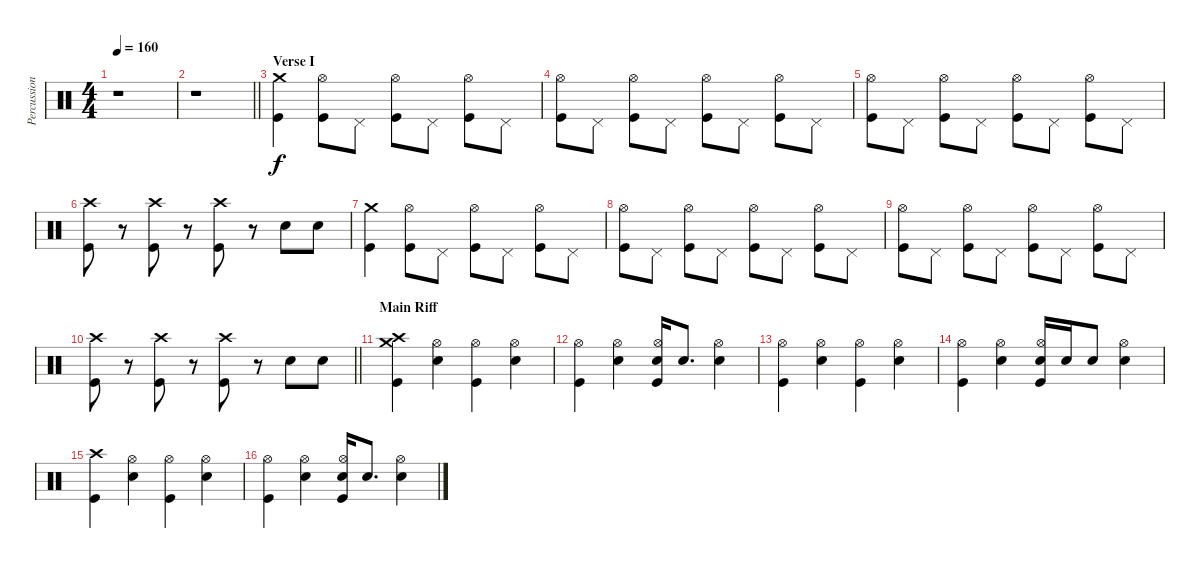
\track ("Percussion" "Percussion") {instrument percussion}
\staff {score}
\articulation defaults
\ts (4 4)
\tempo 160
\clef neutral
\ks c
r.1{dy f} |
\barLineRight lightlight
r.1 |
\section ("" "Verse I")
("Crash medium (hit)" "Kick (hit)").4 ("Hi-Hat (open)" "Kick (hit)").8 "Pedal Hi-Hat (hit)".8 ("Hi-Hat (open)" "Kick (hit)").8 "Pedal Hi-Hat (hit)".8 ("Hi-Hat (open)" "Kick (hit)").8 "Pedal Hi-Hat (hit)".8 |
("Hi-Hat (open)" "Kick (hit)").8 "Pedal Hi-Hat (hit)".8 ("Hi-Hat (open)" "Kick (hit)").8 "Pedal Hi-Hat (hit)".8 ("Hi-Hat (open)" "Kick (hit)").8 "Pedal Hi-Hat (hit)".8 ("Hi-Hat (open)" "Kick (hit)").8 "Pedal Hi-Hat (hit)".8 |
("Hi-Hat (open)" "Kick (hit)").8 "Pedal Hi-Hat (hit)".8 ("Hi-Hat (open)" "Kick (hit)").8 "Pedal Hi-Hat (hit)".8 ("Hi-Hat (open)" "Kick (hit)").8 "Pedal Hi-Hat (hit)".8 ("Hi-Hat (open)" "Kick (hit)").8 "Pedal Hi-Hat (hit)".8 |
("Crash high (hit)" "Kick (hit)").8 r.8{volume 0} ("Crash high (hit)" "Kick (hit)").8{volume 13} r.8{volume 0} ("Crash high (hit)" "Kick (hit)").8{volume 13} r.8{volume 0} "Hand Clap (hit)".8{volume 13} "Hand Clap (hit)".8 |
("Crash medium (hit)" "Kick (hit)").4 ("Hi-Hat (open)" "Kick (hit)").8 "Pedal Hi-Hat (hit)".8 ("Hi-Hat (open)" "Kick (hit)").8 "Pedal Hi-Hat (hit)".8 ("Hi-Hat (open)" "Kick (hit)").8 "Pedal Hi-Hat (hit)".8 |
("Hi-Hat (open)" "Kick (hit)").8 "Pedal Hi-Hat (hit)".8 ("Hi-Hat (open)" "Kick (hit)").8 "Pedal Hi-Hat (hit)".8 ("Hi-Hat (open)" "Kick (hit)").8 "Pedal Hi-Hat (hit)".8 ("Hi-Hat (open)" "Kick (hit)").8 "Pedal Hi-Hat (hit)".8 |
("Hi-Hat (open)" "Kick (hit)").8 "Pedal Hi-Hat (hit)".8 ("Hi-Hat (open)" "Kick (hit)").8 "Pedal Hi-Hat (hit)".8 ("Hi-Hat (open)" "Kick (hit)").8 "Pedal Hi-Hat (hit)".8 ("Hi-Hat (open)" "Kick (hit)").8 "Pedal Hi-Hat (hit)".8 |
\barLineRight lightlight
("Crash high (hit)" "Kick (hit)").8 r.8{volume 0} ("Crash high (hit)" "Kick (hit)").8{volume 13} r.8{volume 0} ("Crash high (hit)" "Kick (hit)").8{volume 13} r.8{volume 0} "Hand Clap (hit)".8{volume 13} "Hand Clap (hit)".8 |
\section ("" "Main Riff")
("Crash high (hit)" "Crash medium (hit)" "Kick (hit)").4 ("Hi-Hat (open)" "Electric Snare (hit)").4 ("Hi-Hat (open)" "Kick (hit)").4 ("Hi-Hat (open)" "Electric Snare (hit)").4 |
("Hi-Hat (open)" "Kick (hit)").4 ("Hi-Hat (open)" "Electric Snare (hit)").4 ("Hi-Hat (open)" "Electric Snare (hit)" "Kick (hit)").16 "Electric Snare (hit)".8{d} ("Hi-Hat (open)" "Electric Snare (hit)").4 |
("Hi-Hat (open)" "Kick (hit)").4 ("Hi-Hat (open)" "Electric Snare (hit)").4 ("Hi-Hat (open)" "Kick (hit)").4 ("Hi-Hat (open)" "Electric Snare (hit)").4 |
("Hi-Hat (open)" "Kick (hit)").4 ("Hi-Hat (open)" "Electric Snare (hit)").4 ("Hi-Hat (open)" "Electric Snare (hit)" "Kick (hit)").16 "Electric Snare (hit)".16 "Electric Snare (hit)".8 ("Hi-Hat (open)" "Electric Snare (hit)").4 |
("Crash high (hit)" "Kick (hit)").4 ("Hi-Hat (open)" "Electric Snare (hit)").4 ("Hi-Hat (open)" "Kick (hit)").4 ("Hi-Hat (open)" "Electric Snare (hit)").4 |
("Hi-Hat (open)" "Kick (hit)").4 ("Hi-Hat (open)" "Electric Snare (hit)").4 ("Hi-Hat (open)" "Electric Snare (hit)" "Kick (hit)").16 "Electric Snare (hit)".8{d} ("Hi-Hat (open)" "Electric Snare (hit)").4
